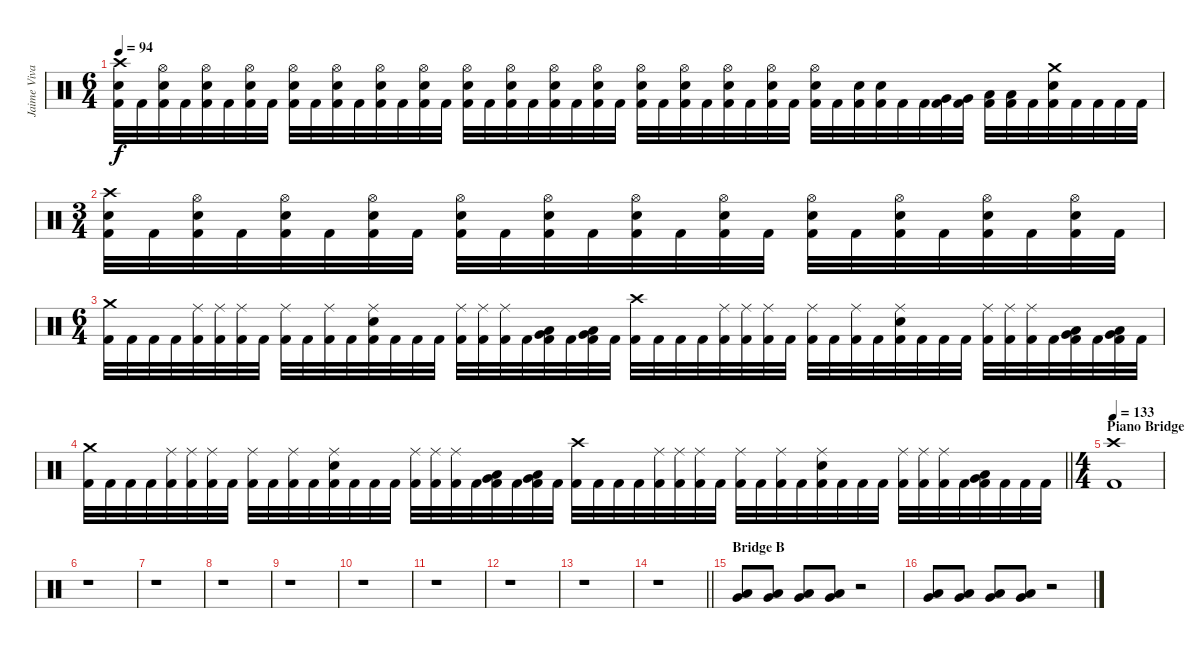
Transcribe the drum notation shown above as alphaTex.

\track ("Jaime Vivar" "Jaime Viva") {instrument percussion}
\staff {score}
\articulation defaults
\ts (6 4)
\tempo 94
\clef neutral
\ks c
("Crash high (hit)" "Snare (hit) 2" "Kick (hit) 2").32{dy f} "Kick (hit) 2".32 ("Hi-Hat (open)" "Snare (hit) 2" "Kick (hit) 2").32 "Kick (hit) 2".32 ("Hi-Hat (open)" "Snare (hit) 2" "Kick (hit) 2").32 "Kick (hit) 2".32 ("Hi-Hat (open)" "Snare (hit) 2" "Kick (hit) 2").32 "Kick (hit) 2".32 ("Hi-Hat (open)" "Snare (hit) 2" "Kick (hit) 2").32 "Kick (hit) 2".32 ("Hi-Hat (open)" "Snare (hit) 2" "Kick (hit) 2").32 "Kick (hit) 2".32 ("Hi-Hat (open)" "Snare (hit) 2" "Kick (hit) 2").32 "Kick (hit) 2".32 ("Hi-Hat (open)" "Snare (hit) 2" "Kick (hit) 2").32 "Kick (hit) 2".32 ("Hi-Hat (open)" "Snare (hit) 2" "Kick (hit) 2").32 "Kick (hit) 2".32 ("Hi-Hat (open)" "Snare (hit) 2" "Kick (hit) 2").32 "Kick (hit) 2".32 ("Hi-Hat (open)" "Snare (hit) 2" "Kick (hit) 2").32 "Kick (hit) 2".32 ("Hi-Hat (open)" "Snare (hit) 2" "Kick (hit) 2").32 "Kick (hit) 2".32 ("Hi-Hat (open)" "Snare (hit) 2" "Kick (hit) 2").32 "Kick (hit) 2".32 ("Hi-Hat (open)" "Snare (hit) 2" "Kick (hit) 2").32 "Kick (hit) 2".32 ("Hi-Hat (open)" "Snare (hit) 2" "Kick (hit) 2").32 "Kick (hit) 2".32 ("Hi-Hat (open)" "Snare (hit) 2" "Kick (hit) 2").32 "Kick (hit) 2".32 ("Hi-Hat (open)" "Snare (hit) 2" "Kick (hit) 2").32 "Kick (hit) 2".32 ("Snare (hit) 2" "Kick (hit) 2").32 ("Snare (hit) 2" "Kick (hit) 2").32 "Kick (hit) 2".32 "Kick (hit) 2".32 ("Very Low Tom (hit)" "Kick (hit) 2").32 ("Very Low Tom (hit)" "Kick (hit) 2").32 ("Low Floor Tom (hit)" "Kick (hit) 2").32 ("Low Floor Tom (hit)" "Kick (hit) 2").32 "Kick (hit) 2".32 ("Crash medium (hit)" "Snare (hit) 2" "Kick (hit) 2").32 "Kick (hit) 2".32 "Kick (hit) 2".32 "Kick (hit) 2".32 "Kick (hit) 2".32 |
\ts (3 4)
("Crash high (hit)" "Snare (hit) 2" "Kick (hit) 2").32 "Kick (hit) 2".32 ("Hi-Hat (open)" "Snare (hit) 2" "Kick (hit) 2").32 "Kick (hit) 2".32 ("Hi-Hat (open)" "Snare (hit) 2" "Kick (hit) 2").32 "Kick (hit) 2".32 ("Hi-Hat (open)" "Snare (hit) 2" "Kick (hit) 2").32 "Kick (hit) 2".32 ("Hi-Hat (open)" "Snare (hit) 2" "Kick (hit) 2").32 "Kick (hit) 2".32 ("Hi-Hat (open)" "Snare (hit) 2" "Kick (hit) 2").32 "Kick (hit) 2".32 ("Hi-Hat (open)" "Snare (hit) 2" "Kick (hit) 2").32 "Kick (hit) 2".32 ("Hi-Hat (open)" "Snare (hit) 2" "Kick (hit) 2").32 "Kick (hit) 2".32 ("Hi-Hat (open)" "Snare (hit) 2" "Kick (hit) 2").32 "Kick (hit) 2".32 ("Hi-Hat (open)" "Snare (hit) 2" "Kick (hit) 2").32 "Kick (hit) 2".32 ("Hi-Hat (open)" "Snare (hit) 2" "Kick (hit) 2").32 "Kick (hit) 2".32 ("Hi-Hat (open)" "Snare (hit) 2" "Kick (hit) 2").32 "Kick (hit) 2".32 |
\ts (6 4)
("Crash medium (hit)" "Kick (hit) 2").32 "Kick (hit) 2".32 "Kick (hit) 2".32 "Kick (hit) 2".32 ("Ride (middle)" "Kick (hit) 2").32 ("Ride (middle)" "Kick (hit) 2").32 ("Ride (middle)" "Kick (hit) 2").32 "Kick (hit) 2".32 ("Ride (middle)" "Kick (hit) 2").32 "Kick (hit) 2".32 ("Ride (middle)" "Kick (hit) 2").32 "Kick (hit) 2".32 ("Ride (middle)" "Snare (hit) 2" "Kick (hit) 2").32 "Kick (hit) 2".32 "Kick (hit) 2".32 "Kick (hit) 2".32 ("Ride (middle)" "Kick (hit) 2").32 ("Ride (middle)" "Kick (hit) 2").32 ("Ride (middle)" "Kick (hit) 2").32 "Kick (hit) 2".32 ("Very Low Tom (hit)" "Low Floor Tom (hit)" "Kick (hit) 2").32 "Kick (hit) 2".32 ("Very Low Tom (hit)" "Low Floor Tom (hit)" "Kick (hit) 2").32 "Kick (hit) 2".32 ("Crash high (hit)" "Kick (hit) 2").32 "Kick (hit) 2".32 "Kick (hit) 2".32 "Kick (hit) 2".32 ("Ride (middle)" "Kick (hit) 2").32 ("Ride (middle)" "Kick (hit) 2").32 ("Ride (middle)" "Kick (hit) 2").32 "Kick (hit) 2".32 ("Ride (middle)" "Kick (hit) 2").32 "Kick (hit) 2".32 ("Ride (middle)" "Kick (hit) 2").32 "Kick (hit) 2".32 ("Ride (middle)" "Snare (hit) 2" "Kick (hit) 2").32 "Kick (hit) 2".32 "Kick (hit) 2".32 "Kick (hit) 2".32 ("Ride (middle)" "Kick (hit) 2").32 ("Ride (middle)" "Kick (hit) 2").32 ("Ride (middle)" "Kick (hit) 2").32 "Kick (hit) 2".32 ("Very Low Tom (hit)" "Low Floor Tom (hit)" "Kick (hit) 2").32 "Kick (hit) 2".32 ("Very Low Tom (hit)" "Low Floor Tom (hit)" "Kick (hit) 2").32 "Kick (hit) 2".32 |
\barLineRight lightlight
("Crash medium (hit)" "Kick (hit) 2").32 "Kick (hit) 2".32 "Kick (hit) 2".32 "Kick (hit) 2".32 ("Ride (middle)" "Kick (hit) 2").32 ("Ride (middle)" "Kick (hit) 2").32 ("Ride (middle)" "Kick (hit) 2").32 "Kick (hit) 2".32 ("Ride (middle)" "Kick (hit) 2").32 "Kick (hit) 2".32 ("Ride (middle)" "Kick (hit) 2").32 "Kick (hit) 2".32 ("Ride (middle)" "Snare (hit) 2" "Kick (hit) 2").32 "Kick (hit) 2".32 "Kick (hit) 2".32 "Kick (hit) 2".32 ("Ride (middle)" "Kick (hit) 2").32 ("Ride (middle)" "Kick (hit) 2").32 ("Ride (middle)" "Kick (hit) 2").32 "Kick (hit) 2".32 ("Very Low Tom (hit)" "Low Floor Tom (hit)" "Kick (hit) 2").32 "Kick (hit) 2".32 ("Very Low Tom (hit)" "Low Floor Tom (hit)" "Kick (hit) 2").32 "Kick (hit) 2".32 ("Crash high (hit)" "Kick (hit) 2").32 "Kick (hit) 2".32 "Kick (hit) 2".32 "Kick (hit) 2".32 ("Ride (middle)" "Kick (hit) 2").32 ("Ride (middle)" "Kick (hit) 2").32 ("Ride (middle)" "Kick (hit) 2").32 "Kick (hit) 2".32 ("Ride (middle)" "Kick (hit) 2").32 "Kick (hit) 2".32 ("Ride (middle)" "Kick (hit) 2").32 "Kick (hit) 2".32 ("Ride (middle)" "Snare (hit) 2" "Kick (hit) 2").32 "Kick (hit) 2".32 "Kick (hit) 2".32 "Kick (hit) 2".32 ("Ride (middle)" "Kick (hit) 2").32 ("Ride (middle)" "Kick (hit) 2").32 ("Ride (middle)" "Kick (hit) 2").32 "Kick (hit) 2".32 ("Low Tom (hit)" "Very Low Tom (hit)" "Kick (hit) 2").32 "Kick (hit) 2".32 "Kick (hit) 2".32 "Kick (hit) 2".32 |
\ts (4 4)
\section ("" "Piano Bridge")
\tempo 133
("Crash high (hit)" "Kick (hit) 2").1 |
r.1 |
r.1 |
r.1 |
r.1 |
r.1 |
r.1 |
r.1 |
r.1 |
\barLineRight lightlight
r.1 |
\section ("" "Bridge B")
("Very Low Tom (hit)" "Low Floor Tom (hit)").8 ("Very Low Tom (hit)" "Low Floor Tom (hit)").8 ("Very Low Tom (hit)" "Low Floor Tom (hit)").8 ("Very Low Tom (hit)" "Low Floor Tom (hit)").8 r.2 |
("Very Low Tom (hit)" "Low Floor Tom (hit)").8 ("Very Low Tom (hit)" "Low Floor Tom (hit)").8 ("Very Low Tom (hit)" "Low Floor Tom (hit)").8 ("Very Low Tom (hit)" "Low Floor Tom (hit)").8 r.2
